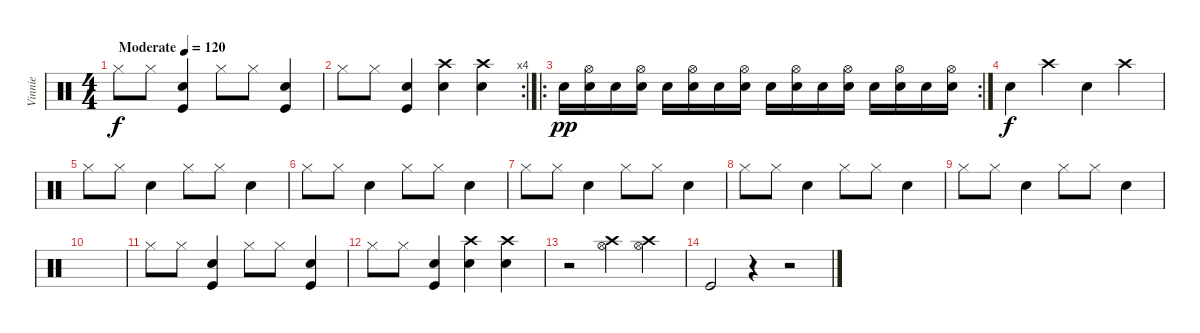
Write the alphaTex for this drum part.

\track ("Vinnie" "Vinnie") {instrument percussion}
\staff {score}
\articulation defaults
\ts (4 4)
\tempo (120 "Moderate")
\clef neutral
\ks c "Hi-Hat (closed)".8{dy f} "Hi-Hat (closed)".8
("Snare (hit) 2" "Kick (hit)").4 "Hi-Hat (closed)".8 "Hi-Hat (closed)".8 ("Snare (hit) 2" "Kick (hit)").4 |
\rc 4 "Hi-Hat (closed)".8 "Hi-Hat (closed)".8
("Snare (hit) 2" "Kick (hit)").4 ("Crash high (hit)" "Snare (hit) 2").4 ("Crash high (hit)" "Snare (hit) 2").4 |
\ro
\rc 2 "Snare (hit) 2".16{dy pp}
("Snare (hit) 2" "Hi-Hat (open)").16 "Snare (hit) 2".16 ("Snare (hit) 2" "Hi-Hat (open)").16 "Snare (hit) 2".16 ("Snare (hit) 2" "Hi-Hat (open)").16 "Snare (hit) 2".16 ("Snare (hit) 2" "Hi-Hat (open)").16 "Snare (hit) 2".16 ("Snare (hit) 2" "Hi-Hat (open)").16 "Snare (hit) 2".16 ("Snare (hit) 2" "Hi-Hat (open)").16 "Snare (hit) 2".16 ("Snare (hit) 2" "Hi-Hat (open)").16 "Snare (hit) 2".16 ("Snare (hit) 2" "Hi-Hat (open)").16 |
"Snare (hit) 2".4{dy f} "Crash high (hit)".4 "Snare (hit) 2".4 "Crash high (hit)".4 |
"Hi-Hat (closed)".8 "Hi-Hat (closed)".8 "Snare (hit) 2".4 "Hi-Hat (closed)".8 "Hi-Hat (closed)".8 "Snare (hit) 2".4 |
"Hi-Hat (closed)".8 "Hi-Hat (closed)".8 "Snare (hit) 2".4 "Hi-Hat (closed)".8 "Hi-Hat (closed)".8 "Snare (hit) 2".4 |
"Hi-Hat (closed)".8 "Hi-Hat (closed)".8 "Snare (hit) 2".4 "Hi-Hat (closed)".8 "Hi-Hat (closed)".8 "Snare (hit) 2".4 |
"Hi-Hat (closed)".8 "Hi-Hat (closed)".8 "Snare (hit) 2".4 "Hi-Hat (closed)".8 "Hi-Hat (closed)".8 "Snare (hit) 2".4 |
"Hi-Hat (closed)".8 "Hi-Hat (closed)".8 "Snare (hit) 2".4 "Hi-Hat (closed)".8 "Hi-Hat (closed)".8 "Snare (hit) 2".4 |
|
"Hi-Hat (closed)".8 "Hi-Hat (closed)".8 ("Snare (hit) 2" "Kick (hit)").4 "Hi-Hat (closed)".8 "Hi-Hat (closed)".8 ("Snare (hit) 2" "Kick (hit)").4 |
"Hi-Hat (closed)".8 "Hi-Hat (closed)".8 ("Snare (hit) 2" "Kick (hit)").4 ("Crash high (hit)" "Snare (hit) 2").4 ("Crash high (hit)" "Snare (hit) 2").4 |
r.2 ("Hi-Hat (open)" "Crash high (hit)").4 ("Hi-Hat (open)" "Crash high (hit)").4 |
"Kick (hit)".2 r.4 r.2
